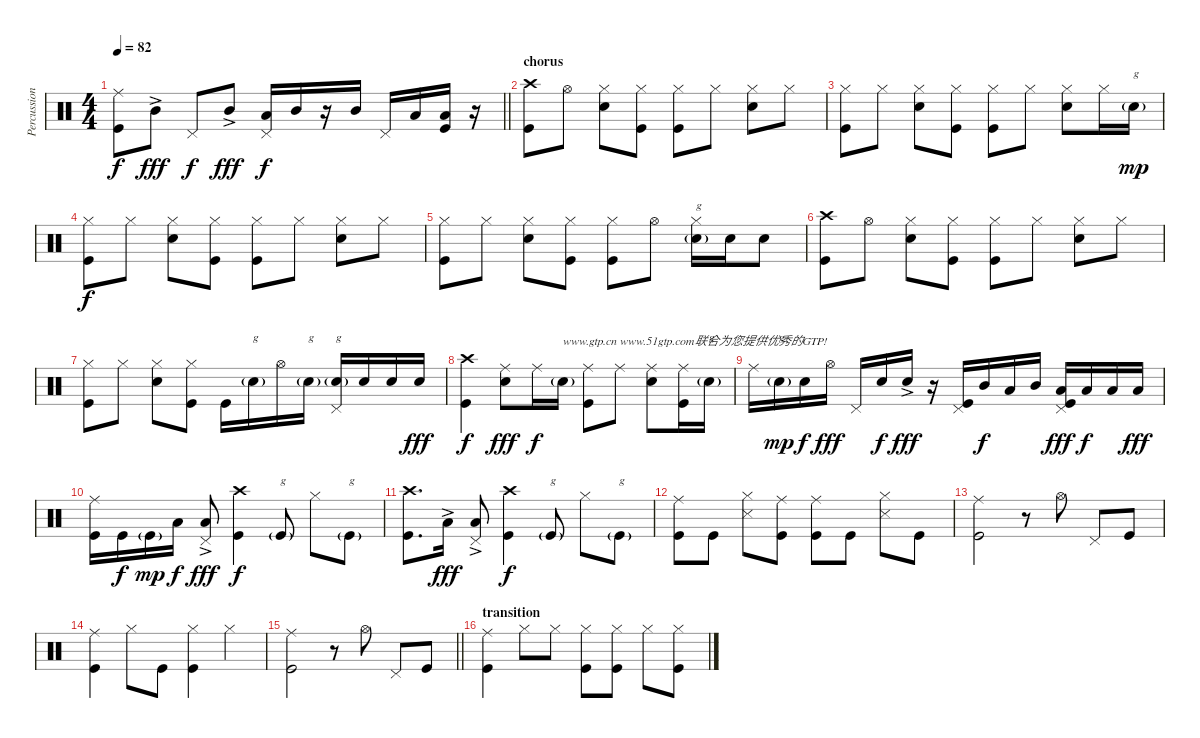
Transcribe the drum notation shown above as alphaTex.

\track ("Percussion" "Percussion") {instrument percussion}
\staff {score}
\articulation defaults
\ts (4 4)
\tempo 82
\clef neutral
\barLineRight lightlight
\ks c
("Ride (middle)" "Kick (hit)").8{dy f} "Mid Tom (hit)"{ac}.8{dy fff} "Pedal Hi-Hat (hit)".8{dy f} "Mid Tom (hit)"{ac}.8{dy fff} ("Low Tom (hit)" "Pedal Hi-Hat (hit)").16{dy f} "Mid Tom (hit)".16 r.16 "Mid Tom (hit)".16 "Pedal Hi-Hat (hit)".16 "Low Tom (hit)".16 ("Low Tom (hit)" "Kick (hit)").16 r.16 |
\section ("" "chorus")
("Crash high (hit)" "Kick (hit)").8 "Hi-Hat (open)".8 ("Hi-Hat (closed)" "Electric Snare (hit)").8 ("Hi-Hat (closed)" "Kick (hit)").8 ("Hi-Hat (closed)" "Kick (hit)").8 "Hi-Hat (closed)".8 ("Hi-Hat (closed)" "Electric Snare (hit)").8 "Hi-Hat (closed)".8 |
("Hi-Hat (closed)" "Kick (hit)").8 "Hi-Hat (closed)".8 ("Hi-Hat (closed)" "Electric Snare (hit)").8 ("Hi-Hat (closed)" "Kick (hit)").8 ("Hi-Hat (closed)" "Kick (hit)").8 "Hi-Hat (closed)".8 ("Hi-Hat (closed)" "Electric Snare (hit)").8 "Hi-Hat (closed)".16 "Electric Snare (hit)"{g}.16{txt "g" dy mp} |
("Hi-Hat (closed)" "Kick (hit)").8{dy f} "Hi-Hat (closed)".8 ("Hi-Hat (closed)" "Electric Snare (hit)").8 ("Hi-Hat (closed)" "Kick (hit)").8 ("Hi-Hat (closed)" "Kick (hit)").8 "Hi-Hat (closed)".8 ("Hi-Hat (closed)" "Electric Snare (hit)").8 "Hi-Hat (closed)".8 |
("Hi-Hat (closed)" "Kick (hit)").8 "Hi-Hat (closed)".8 ("Hi-Hat (closed)" "Electric Snare (hit)").8 ("Hi-Hat (closed)" "Kick (hit)").8 ("Hi-Hat (closed)" "Kick (hit)").8 "Hi-Hat (open)".8 ("Hi-Hat (closed)" "Electric Snare (hit)"{g}).16{txt "g"} "Electric Snare (hit)".16 "Electric Snare (hit)".8 |
("Crash high (hit)" "Kick (hit)").8 "Hi-Hat (open)".8 ("Hi-Hat (closed)" "Electric Snare (hit)").8 ("Hi-Hat (closed)" "Kick (hit)").8 ("Hi-Hat (closed)" "Kick (hit)").8 "Hi-Hat (closed)".8 ("Hi-Hat (closed)" "Electric Snare (hit)").8 "Hi-Hat (closed)".8 |
("Hi-Hat (closed)" "Kick (hit)").8 "Hi-Hat (closed)".8 ("Hi-Hat (closed)" "Electric Snare (hit)").8 ("Hi-Hat (closed)" "Kick (hit)").8 "Kick (hit)".16 "Electric Snare (hit)"{g}.16{txt "g"} "Hi-Hat (open)".16 "Electric Snare (hit)"{g}.16{txt "g"} ("Pedal Hi-Hat (hit)" "Electric Snare (hit)"{g}).16{txt "g"} "Electric Snare (hit)".16 "Electric Snare (hit)".16 "Electric Snare (hit)".16{dy fff} |
("Crash high (hit)" "Kick (hit)").4{dy f} ("Ride (middle)" "Electric Snare (hit)").8{dy fff} "Ride (middle)".16{dy f} "Electric Snare (hit)"{g}.16{txt "www.gtp.cn www.51gtp.com联合为您提供优秀的GTP!"} ("Ride (middle)" "Kick (hit)").8 "Ride (middle)".8 ("Ride (middle)" "Electric Snare (hit)").8 ("Ride (middle)" "Kick (hit)").16 "Electric Snare (hit)"{g}.16{txt "g"} |
"Ride (middle)".16 "Electric Snare (hit)"{g}.16{txt "g" dy mp} "Electric Snare (hit)".16{dy f} "Hi-Hat (open)".16{dy fff} "Pedal Hi-Hat (hit)".16 "Electric Snare (hit)".16{dy f} "Electric Snare (hit)"{ac}.16{dy fff} r.16 ("Pedal Hi-Hat (hit)" "Kick (hit)").16 "Mid Tom (hit)".16{dy f} "Low Tom (hit)".16 "Mid Tom (hit)".16 ("Pedal Hi-Hat (hit)" "Low Tom (hit)" "Kick (hit)").16{dy fff} "Low Tom (hit)".16{dy f} "Low Floor Tom (hit)".16 "Low Floor Tom (hit)".16{dy fff} |
("Ride (middle)" "Kick (hit)").16 "Kick (hit)".16{dy f} "Kick (hit)"{g}.16{dy mp} "Low Tom (hit)".16{dy f} ("Low Tom (hit)"{ac} "Pedal Hi-Hat (hit)").8{dy fff} ("Crash high (hit)" "Kick (hit)").4{dy f} "Kick (hit)"{g}.8{txt "g"} "Hi-Hat (closed)".8 "Kick (hit)"{g}.8{txt "g"} |
("Crash high (hit)" "Kick (hit)").8{d} "Low Tom (hit)"{ac}.16{dy fff} ("Low Tom (hit)"{ac} "Pedal Hi-Hat (hit)").8 ("Crash high (hit)" "Kick (hit)").4{dy f} "Kick (hit)"{g}.8{txt "g"} "Hi-Hat (closed)".8 "Kick (hit)"{g}.8{txt "g"} |
("Ride (middle)" "Kick (hit)").8 "Kick (hit)".8 ("Snare (side stick) 3" "Hi-Hat (closed)").8 ("Ride (middle)" "Kick (hit)").8 ("Ride (middle)" "Kick (hit)").8 "Kick (hit)".8 ("Snare (side stick) 3" "Hi-Hat (closed)").8 "Kick (hit)".8 |
("Ride (middle)" "Kick (hit)").2 r.8 "Hi-Hat (open)".8 "Pedal Hi-Hat (hit)".8 "Kick (hit)".8 |
("Ride (middle)" "Kick (hit)").4 "Hi-Hat (closed)".8 "Kick (hit)".8 ("Hi-Hat (closed)" "Kick (hit)").4 "Hi-Hat (closed)".4 |
\barLineRight lightlight
("Ride (middle)" "Kick (hit)").2 r.8 "Hi-Hat (open)".8 "Pedal Hi-Hat (hit)".8 "Kick (hit)".8 |
\section ("" "transition")
("Ride (middle)" "Kick (hit)").4 "Hi-Hat (closed)".8 "Hi-Hat (closed)".8 ("Hi-Hat (closed)" "Kick (hit)").8 ("Hi-Hat (closed)" "Kick (hit)").8 "Hi-Hat (closed)".8 ("Hi-Hat (closed)" "Kick (hit)").8
